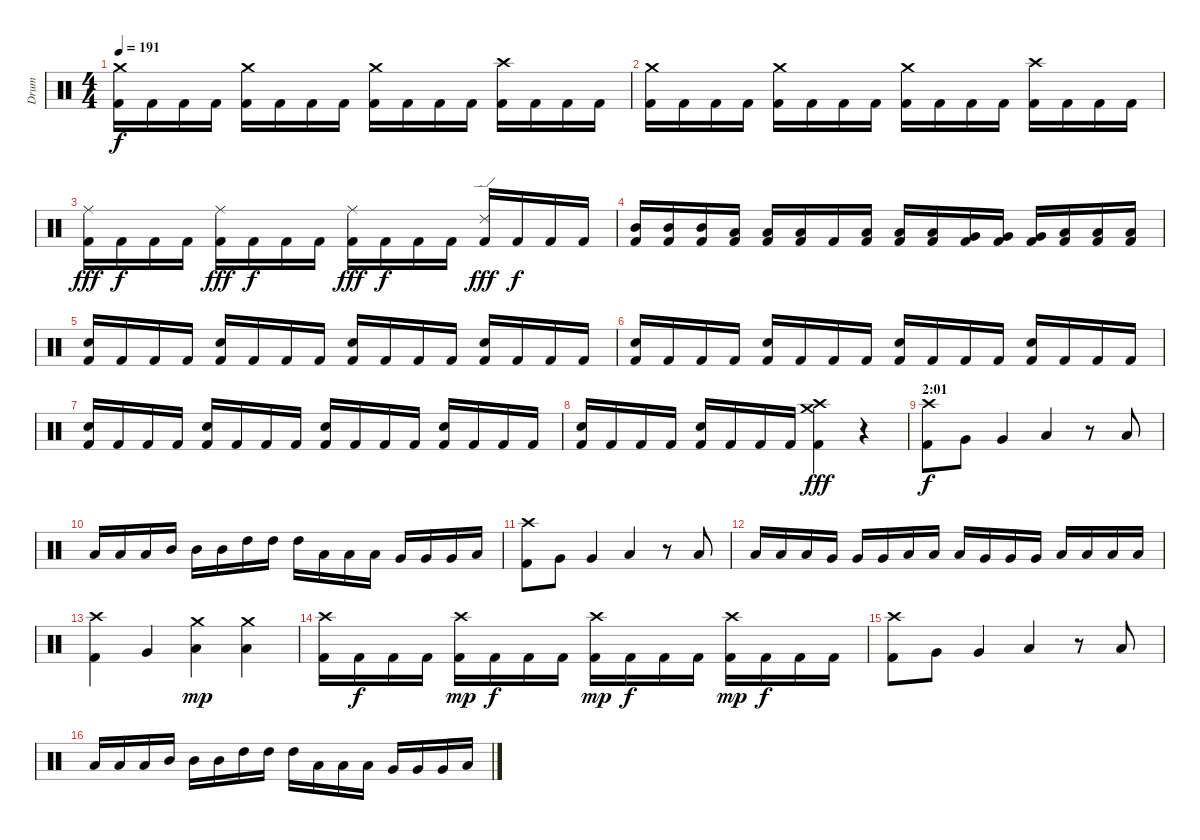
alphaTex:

\track ("Drum" "Drum") {instrument percussion}
\staff {score}
\articulation defaults
\ts (4 4)
\tempo 191
\clef neutral
\ks c
("Kick (hit) 2" "Crash medium (hit)").16{dy f} "Kick (hit) 2".16 "Kick (hit) 2".16 "Kick (hit) 2".16 ("Kick (hit) 2" "Crash medium (hit)").16 "Kick (hit) 2".16 "Kick (hit) 2".16 "Kick (hit) 2".16 ("Kick (hit) 2" "Crash medium (hit)").16 "Kick (hit) 2".16 "Kick (hit) 2".16 "Kick (hit) 2".16 ("Kick (hit) 2" "Crash high (hit)").16 "Kick (hit) 2".16 "Kick (hit) 2".16 "Kick (hit) 2".16 |
("Kick (hit) 2" "Crash medium (hit)").16 "Kick (hit) 2".16 "Kick (hit) 2".16 "Kick (hit) 2".16 ("Kick (hit) 2" "Crash medium (hit)").16 "Kick (hit) 2".16 "Kick (hit) 2".16 "Kick (hit) 2".16 ("Kick (hit) 2" "Crash medium (hit)").16 "Kick (hit) 2".16 "Kick (hit) 2".16 "Kick (hit) 2".16 ("Kick (hit) 2" "Crash high (hit)").16 "Kick (hit) 2".16 "Kick (hit) 2".16 "Kick (hit) 2".16 |
("Kick (hit) 2" "Ride (middle)").16{dy fff} "Kick (hit) 2".16{dy f} "Kick (hit) 2".16 "Kick (hit) 2".16 ("Kick (hit) 2" "Ride (middle)").16{dy fff} "Kick (hit) 2".16{dy f} "Kick (hit) 2".16 "Kick (hit) 2".16 ("Kick (hit) 2" "Ride (middle)").16{dy fff} "Kick (hit) 2".16{dy f} "Kick (hit) 2".16 "Kick (hit) 2".16 ("Kick (hit) 2" "Ride (edge) 2").16{dy fff} "Kick (hit) 2".16{dy f} "Kick (hit) 2".16 "Kick (hit) 2".16 |
("Kick (hit) 2" "Mid Tom (hit)").16 ("Kick (hit) 2" "Mid Tom (hit)").16 ("Kick (hit) 2" "Mid Tom (hit)").16 ("Kick (hit) 2" "Low Tom (hit)").16 ("Kick (hit) 2" "Low Tom (hit)").16 ("Kick (hit) 2" "Low Tom (hit)").16 "Kick (hit) 2".16 ("Kick (hit) 2" "Low Tom (hit)").16 ("Kick (hit) 2" "Low Tom (hit)").16 ("Kick (hit) 2" "Low Tom (hit)").16 ("Kick (hit) 2" "Very Low Tom (hit)").16 ("Kick (hit) 2" "Very Low Tom (hit)").16 ("Kick (hit) 2" "Very Low Tom (hit)").16 ("Kick (hit) 2" "Low Floor Tom (hit)").16 ("Kick (hit) 2" "Low Floor Tom (hit)").16 ("Kick (hit) 2" "Low Floor Tom (hit)").16 |
("Kick (hit) 2" "Snare (hit) 2").16 "Kick (hit) 2".16 "Kick (hit) 2".16 "Kick (hit) 2".16 ("Kick (hit) 2" "Snare (hit) 2").16 "Kick (hit) 2".16 "Kick (hit) 2".16 "Kick (hit) 2".16 ("Kick (hit) 2" "Snare (hit) 2").16 "Kick (hit) 2".16 "Kick (hit) 2".16 "Kick (hit) 2".16 ("Kick (hit) 2" "Snare (hit) 2").16 "Kick (hit) 2".16 "Kick (hit) 2".16 "Kick (hit) 2".16 |
("Kick (hit) 2" "Snare (hit) 2").16 "Kick (hit) 2".16 "Kick (hit) 2".16 "Kick (hit) 2".16 ("Kick (hit) 2" "Snare (hit) 2").16 "Kick (hit) 2".16 "Kick (hit) 2".16 "Kick (hit) 2".16 ("Kick (hit) 2" "Snare (hit) 2").16 "Kick (hit) 2".16 "Kick (hit) 2".16 "Kick (hit) 2".16 ("Kick (hit) 2" "Snare (hit) 2").16 "Kick (hit) 2".16 "Kick (hit) 2".16 "Kick (hit) 2".16 |
("Kick (hit) 2" "Snare (hit) 2").16 "Kick (hit) 2".16 "Kick (hit) 2".16 "Kick (hit) 2".16 ("Kick (hit) 2" "Snare (hit) 2").16 "Kick (hit) 2".16 "Kick (hit) 2".16 "Kick (hit) 2".16 ("Kick (hit) 2" "Snare (hit) 2").16 "Kick (hit) 2".16 "Kick (hit) 2".16 "Kick (hit) 2".16 ("Kick (hit) 2" "Snare (hit) 2").16 "Kick (hit) 2".16 "Kick (hit) 2".16 "Kick (hit) 2".16 |
("Kick (hit) 2" "Snare (hit) 2").16 "Kick (hit) 2".16 "Kick (hit) 2".16 "Kick (hit) 2".16 ("Kick (hit) 2" "Snare (hit) 2").16 "Kick (hit) 2".16 "Kick (hit) 2".16 "Kick (hit) 2".16 ("Kick (hit) 2" "Crash medium (hit)" "Crash high (hit)").4{dy fff} r.4 |
\section ("" "2:01")
("Kick (hit) 2" "Crash high (hit)").8{dy f} "Very Low Tom (hit)".8 "Very Low Tom (hit)".4 "Low Floor Tom (hit)".4 r.8 "Low Floor Tom (hit)".8 |
"Low Tom (hit)".16 "Low Tom (hit)".16 "Low Tom (hit)".16 "Mid Tom (hit)".16 "Mid Tom (hit)".16 "Mid Tom (hit)".16 "High Tom (hit)".16 "High Tom (hit)".16 "High Tom (hit)".16 "Low Tom (hit)".16 "Low Tom (hit)".16 "Low Tom (hit)".16 "Very Low Tom (hit)".16 "Very Low Tom (hit)".16 "Very Low Tom (hit)".16 "Low Floor Tom (hit)".16 |
("Kick (hit) 2" "Crash high (hit)").8 "Very Low Tom (hit)".8 "Very Low Tom (hit)".4 "Low Floor Tom (hit)".4 r.8 "Low Floor Tom (hit)".8 |
"Low Floor Tom (hit)".16 "Low Floor Tom (hit)".16 "Low Floor Tom (hit)".16 "Very Low Tom (hit)".16 "Very Low Tom (hit)".16 "Very Low Tom (hit)".16 "Low Tom (hit)".16 "Low Tom (hit)".16 "Low Tom (hit)".16 "Very Low Tom (hit)".16 "Very Low Tom (hit)".16 "Very Low Tom (hit)".16 "Low Floor Tom (hit)".16 "Low Floor Tom (hit)".16 "Low Floor Tom (hit)".16 "Low Floor Tom (hit)".16 |
("Kick (hit) 2" "Crash high (hit)").4 "Very Low Tom (hit)".4 ("Low Floor Tom (hit)" "Crash medium (hit)").4{dy mp} ("Low Floor Tom (hit)" "Crash medium (hit)").4 |
("Kick (hit) 2" "Crash high (hit)").16 "Kick (hit) 2".16{dy f} "Kick (hit) 2".16 "Kick (hit) 2".16 ("Kick (hit) 2" "Crash high (hit)").16{dy mp} "Kick (hit) 2".16{dy f} "Kick (hit) 2".16 "Kick (hit) 2".16 ("Kick (hit) 2" "Crash high (hit)").16{dy mp} "Kick (hit) 2".16{dy f} "Kick (hit) 2".16 "Kick (hit) 2".16 ("Kick (hit) 2" "Crash high (hit)").16{dy mp} "Kick (hit) 2".16{dy f} "Kick (hit) 2".16 "Kick (hit) 2".16 |
("Kick (hit) 2" "Crash high (hit)").8 "Very Low Tom (hit)".8 "Very Low Tom (hit)".4 "Low Floor Tom (hit)".4 r.8 "Low Floor Tom (hit)".8 |
"Low Tom (hit)".16 "Low Tom (hit)".16 "Low Tom (hit)".16 "Mid Tom (hit)".16 "Mid Tom (hit)".16 "Mid Tom (hit)".16 "High Tom (hit)".16 "High Tom (hit)".16 "High Tom (hit)".16 "Low Tom (hit)".16 "Low Tom (hit)".16 "Low Tom (hit)".16 "Very Low Tom (hit)".16 "Very Low Tom (hit)".16 "Very Low Tom (hit)".16 "Low Floor Tom (hit)".16
